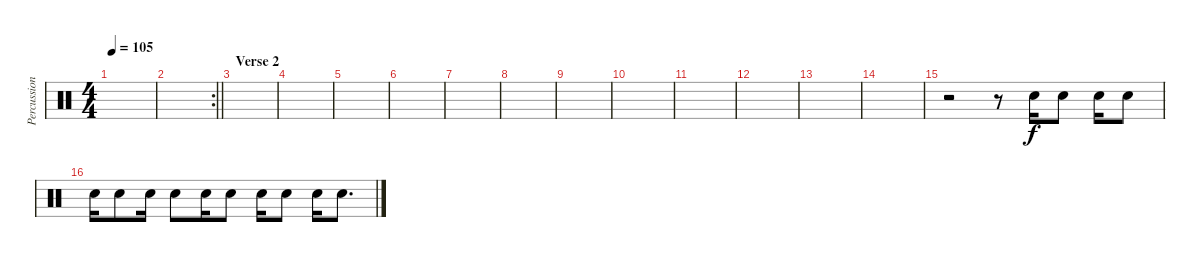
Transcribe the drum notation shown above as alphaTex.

\track ("Percussion FX" "Percussion") {instrument percussion}
\staff {score}
\articulation defaults
\ts (4 4)
\tempo 105
\clef neutral
\ks c
|
\rc 2
\barLineRight lightlight
|
\section ("" "Verse 2")
|
|
|
|
|
|
|
|
|
|
|
|
r.2{volume 3} r.8{volume 0} "Electric Snare (hit)".16 "Electric Snare (hit)".8 "Electric Snare (hit)".16 "Electric Snare (hit)".8 |
"Electric Snare (hit)".16 "Electric Snare (hit)".8 "Electric Snare (hit)".16 "Electric Snare (hit)".8 "Electric Snare (hit)".16 "Electric Snare (hit)".8 "Electric Snare (hit)".16 "Electric Snare (hit)".8 "Electric Snare (hit)".16 "Electric Snare (hit)".8{d}
